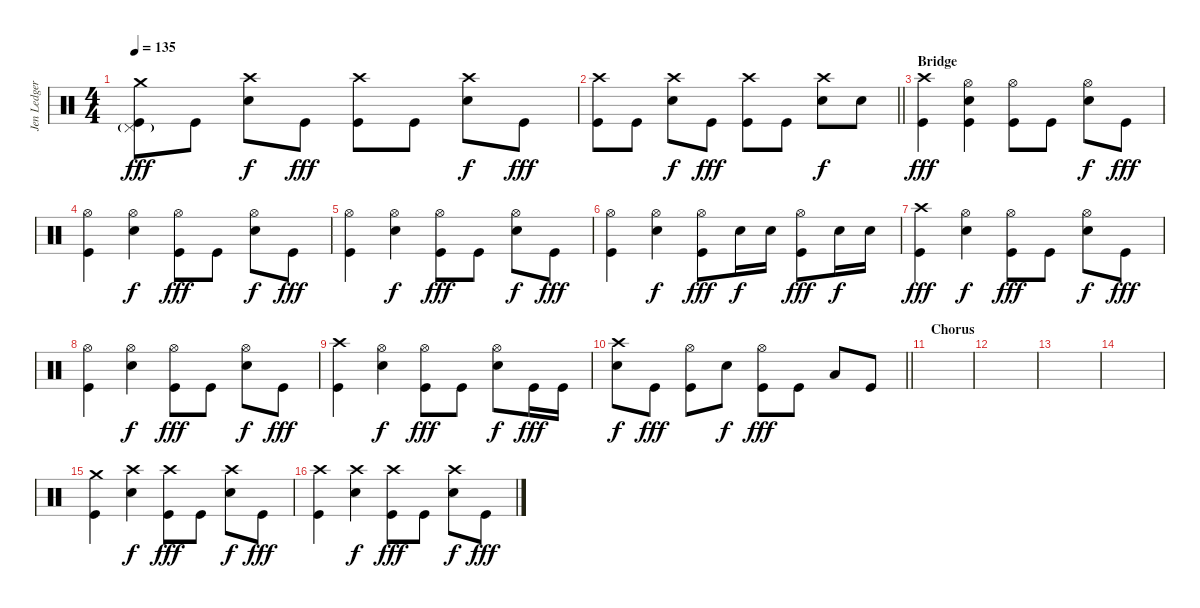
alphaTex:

\track ("Jen Ledger" "Jen Ledger") {instrument percussion}
\staff {score}
\articulation defaults
\ts (4 4)
\tempo 135
\clef neutral
\ks c
("Crash medium (hit)" "Pedal Hi-Hat (hit)"{g} "Kick (hit)").8{dy fff} "Kick (hit)".8 ("Crash high (hit)" "Snare (hit) 2").8{dy f} "Kick (hit)".8{dy fff} ("Crash high (hit)" "Kick (hit)").8 "Kick (hit)".8 ("Crash high (hit)" "Snare (hit) 2").8{dy f} "Kick (hit)".8{dy fff} |
\barLineRight lightlight
("Crash high (hit)" "Kick (hit)").8 "Kick (hit)".8 ("Crash high (hit)" "Snare (hit) 2").8{dy f} "Kick (hit)".8{dy fff} ("Crash high (hit)" "Kick (hit)").8 "Kick (hit)".8 ("Crash high (hit)" "Snare (hit) 2").8{dy f} "Snare (hit) 2".8 |
\section ("" "Bridge")
("Crash high (hit)" "Kick (hit)").4{dy fff} ("Hi-Hat (open)" "Snare (hit) 2" "Kick (hit)").4 ("Hi-Hat (open)" "Kick (hit)").8 "Kick (hit)".8 ("Hi-Hat (open)" "Snare (hit) 2").8{dy f} "Kick (hit)".8{dy fff} |
("Hi-Hat (open)" "Kick (hit)").4 ("Hi-Hat (open)" "Snare (hit) 2").4{dy f} ("Hi-Hat (open)" "Kick (hit)").8{dy fff} "Kick (hit)".8 ("Hi-Hat (open)" "Snare (hit) 2").8{dy f} "Kick (hit)".8{dy fff} |
("Hi-Hat (open)" "Kick (hit)").4 ("Hi-Hat (open)" "Snare (hit) 2").4{dy f} ("Hi-Hat (open)" "Kick (hit)").8{dy fff} "Kick (hit)".8 ("Hi-Hat (open)" "Snare (hit) 2").8{dy f} "Kick (hit)".8{dy fff} |
("Hi-Hat (open)" "Kick (hit)").4 ("Hi-Hat (open)" "Snare (hit) 2").4{dy f} ("Hi-Hat (open)" "Kick (hit)").8{dy fff} "Snare (hit) 2".16{dy f} "Snare (hit) 2".16 ("Hi-Hat (open)" "Kick (hit)").8{dy fff} "Snare (hit) 2".16{dy f} "Snare (hit) 2".16 |
("Crash high (hit)" "Kick (hit)").4{dy fff} ("Hi-Hat (open)" "Snare (hit) 2").4{dy f} ("Hi-Hat (open)" "Kick (hit)").8{dy fff} "Kick (hit)".8 ("Hi-Hat (open)" "Snare (hit) 2").8{dy f} "Kick (hit)".8{dy fff} |
("Hi-Hat (open)" "Kick (hit)").4 ("Hi-Hat (open)" "Snare (hit) 2").4{dy f} ("Hi-Hat (open)" "Kick (hit)").8{dy fff} "Kick (hit)".8 ("Hi-Hat (open)" "Snare (hit) 2").8{dy f} "Kick (hit)".8{dy fff} |
("Crash high (hit)" "Kick (hit)").4 ("Hi-Hat (open)" "Snare (hit) 2").4{dy f} ("Hi-Hat (open)" "Kick (hit)").8{dy fff} "Kick (hit)".8 ("Hi-Hat (open)" "Snare (hit) 2").8{dy f} "Kick (hit)".16{dy fff} "Kick (hit)".16 |
\barLineRight lightlight
("Crash high (hit)" "Snare (hit) 2").8{dy f} "Kick (hit)".8{dy fff} ("Hi-Hat (open)" "Kick (hit)").8 "Snare (hit) 2".8{dy f} ("Hi-Hat (open)" "Kick (hit)").8{dy fff} "Kick (hit)".8 "Low Tom (hit)".8 "Kick (hit)".8 |
\section ("" "Chorus")
|
|
|
|
("Crash medium (hit)" "Kick (hit)").4 ("Crash high (hit)" "Snare (hit) 2").4{dy f} ("Crash high (hit)" "Kick (hit)").8{dy fff} "Kick (hit)".8 ("Crash high (hit)" "Snare (hit) 2").8{dy f} "Kick (hit)".8{dy fff} |
("Crash high (hit)" "Kick (hit)").4 ("Crash high (hit)" "Snare (hit) 2").4{dy f} ("Crash high (hit)" "Kick (hit)").8{dy fff} "Kick (hit)".8 ("Crash high (hit)" "Snare (hit) 2").8{dy f} "Kick (hit)".8{dy fff}
